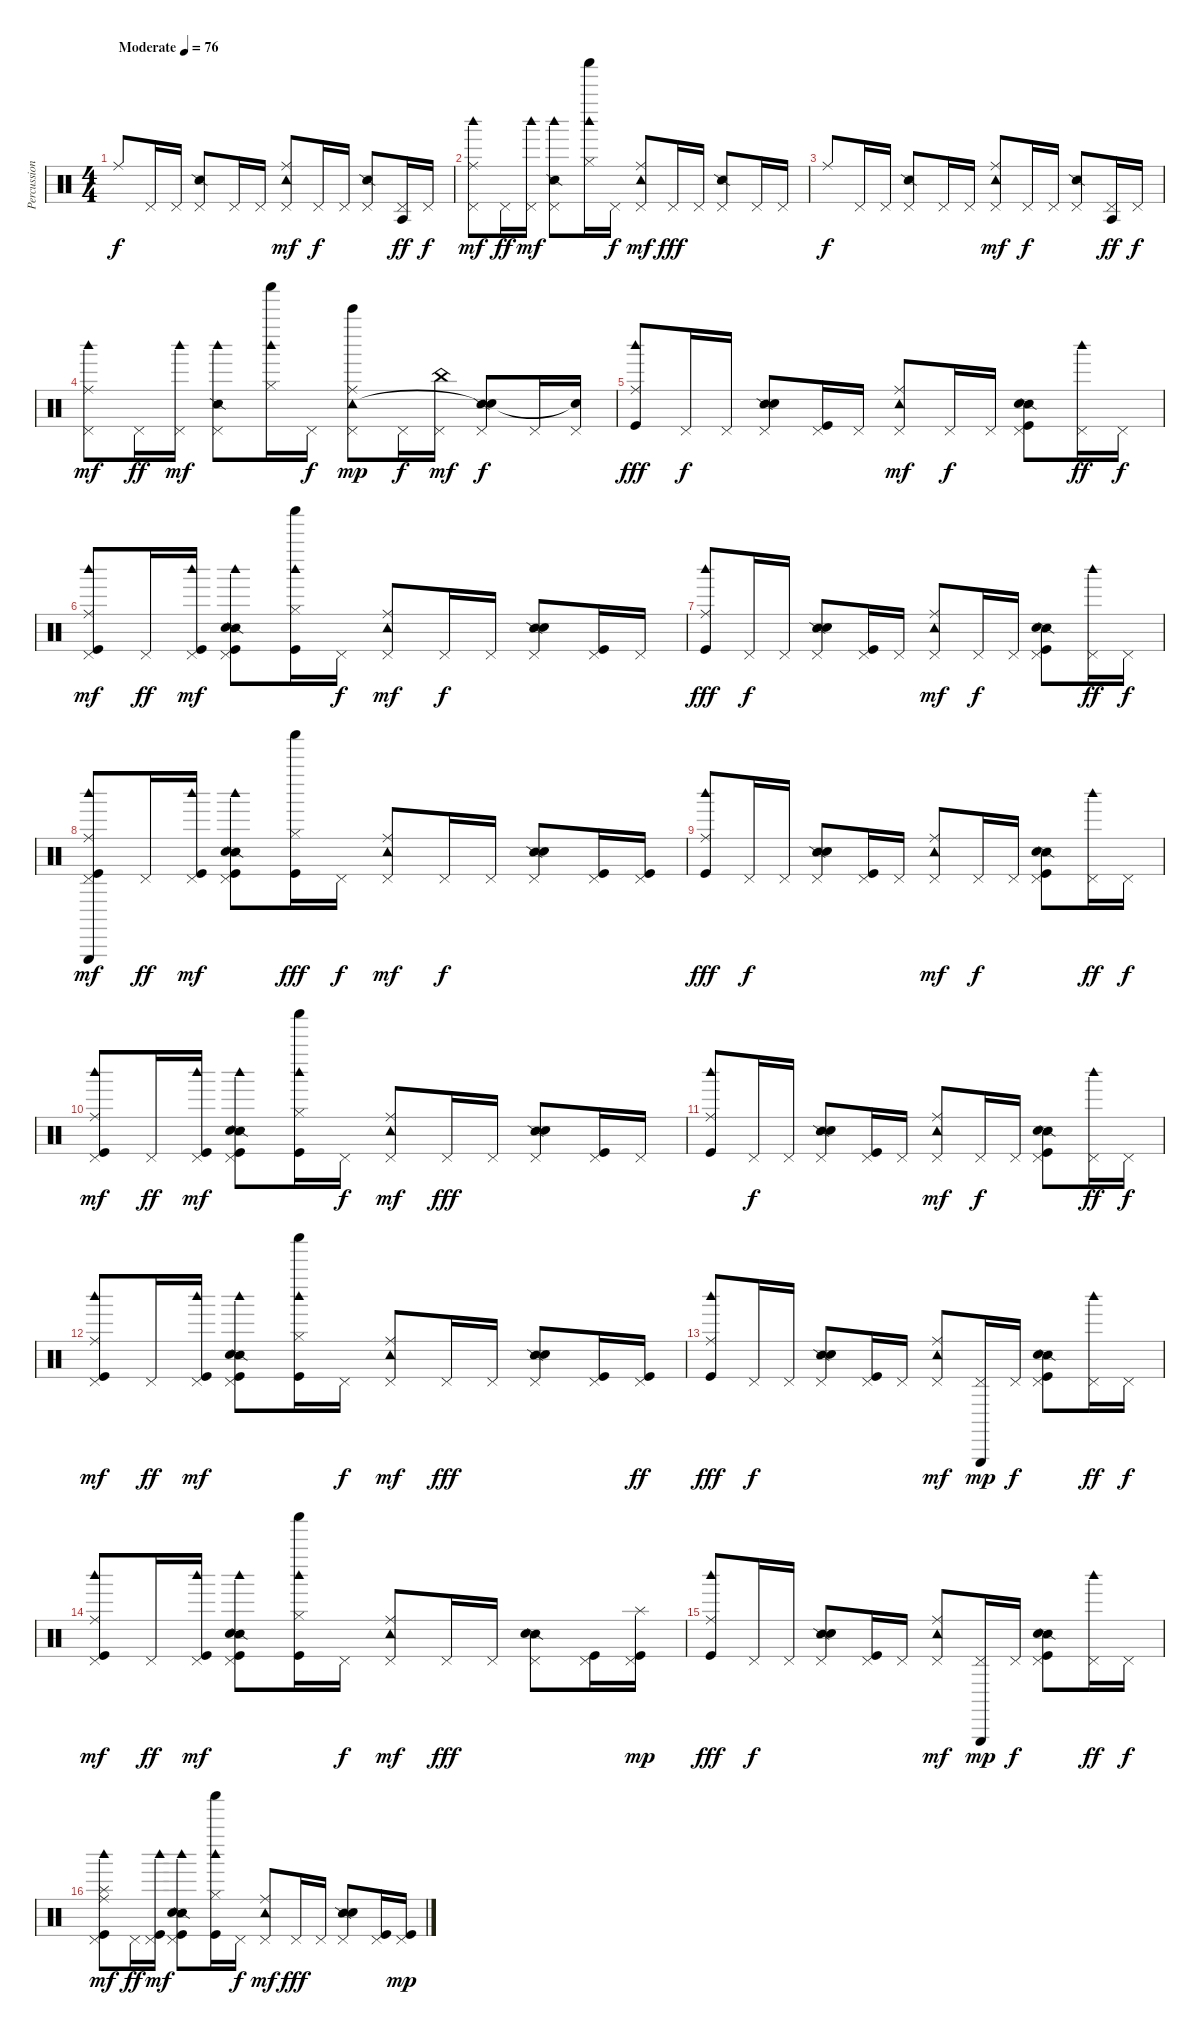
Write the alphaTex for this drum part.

\track ("Percussion" "Percussion") {instrument percussion}
\staff {score}
\articulation defaults
\ts (4 4)
\tempo (76 "Moderate")
\clef neutral
\ks c "Ride (middle)".8{dy f} "Pedal Hi-Hat (hit)".16 "Pedal Hi-Hat (hit)".16
("Pedal Hi-Hat (hit)" "Snare (side stick) 2").8 "Pedal Hi-Hat (hit)".16 "Pedal Hi-Hat (hit)".16 ("Pedal Hi-Hat (hit)" "Tambourine (hit)" "Ride (middle)").8{dy mf} "Pedal Hi-Hat (hit)".16{dy f} "Pedal Hi-Hat (hit)".16 ("Pedal Hi-Hat (hit)" "Snare (side stick) 2").8 ("Pedal Hi-Hat (hit)" "Agogo tow (hit)").16{dy ff} "Pedal Hi-Hat (hit)".16{dy f} |
("Pedal Hi-Hat (hit)" "Ride (middle)" "Woodblock high (hit)").8{dy mf} "Pedal Hi-Hat (hit)".16{dy ff} ("Pedal Hi-Hat (hit)" "Woodblock high (hit)").16{dy mf} ("Pedal Hi-Hat (hit)" "Snare (side stick) 2" "Woodblock high (hit)").8 ("Hi-Hat (closed)" "Shaker (hit)" "Woodblock high (hit)").16 "Pedal Hi-Hat (hit)".16{dy f} ("Pedal Hi-Hat (hit)" "Ride (middle)" "Tambourine (hit)").8{dy mf} "Pedal Hi-Hat (hit)".16{dy fff} "Pedal Hi-Hat (hit)".16 ("Pedal Hi-Hat (hit)" "Snare (side stick) 2").8 "Pedal Hi-Hat (hit)".16 "Pedal Hi-Hat (hit)".16 |
"Ride (middle)".8{dy f} "Pedal Hi-Hat (hit)".16 "Pedal Hi-Hat (hit)".16 ("Pedal Hi-Hat (hit)" "Snare (side stick) 2").8 "Pedal Hi-Hat (hit)".16 "Pedal Hi-Hat (hit)".16 ("Pedal Hi-Hat (hit)" "Tambourine (hit)" "Ride (middle)").8{dy mf} "Pedal Hi-Hat (hit)".16{dy f} "Pedal Hi-Hat (hit)".16 ("Pedal Hi-Hat (hit)" "Snare (side stick) 2").8 ("Pedal Hi-Hat (hit)" "Agogo tow (hit)").16{dy ff} "Pedal Hi-Hat (hit)".16{dy f} |
("Pedal Hi-Hat (hit)" "Ride (middle)" "Woodblock high (hit)").8{dy mf} "Pedal Hi-Hat (hit)".16{dy ff} ("Pedal Hi-Hat (hit)" "Woodblock high (hit)").16{dy mf} ("Pedal Hi-Hat (hit)" "Snare (side stick) 2" "Woodblock high (hit)").8 ("Hi-Hat (closed)" "Shaker (hit)" "Woodblock high (hit)").16 "Pedal Hi-Hat (hit)".16{dy f} ("Pedal Hi-Hat (hit)" "Ride (middle)" "Tambourine (hit)" "Bell Tree (hit)").8{dy mp} "Pedal Hi-Hat (hit)".16{dy f} ("Pedal Hi-Hat (hit)" "China (hit)").16{dy mf} ("Pedal Hi-Hat (hit)" "Snare (side stick) 2" "Snare (hit)"{t}).8{dy f} "Pedal Hi-Hat (hit)".16 ("Pedal Hi-Hat (hit)" "Snare (hit)"{t}).16 |
("Ride (middle)" "Woodblock high (hit)" "Kick (hit)").8{dy fff} "Pedal Hi-Hat (hit)".16{dy f} "Pedal Hi-Hat (hit)".16 ("Pedal Hi-Hat (hit)" "Snare (side stick) 2" "Hand Clap (hit)").8 ("Pedal Hi-Hat (hit)" "Kick (hit)").16 "Pedal Hi-Hat (hit)".16 ("Pedal Hi-Hat (hit)" "Tambourine (hit)" "Ride (middle)").8{dy mf} "Pedal Hi-Hat (hit)".16{dy f} "Pedal Hi-Hat (hit)".16 ("Pedal Hi-Hat (hit)" "Snare (side stick) 2" "Kick (hit)" "Hand Clap (hit)").8 ("Pedal Hi-Hat (hit)" "Woodblock high (hit)").16{dy ff} "Pedal Hi-Hat (hit)".16{dy f} |
("Pedal Hi-Hat (hit)" "Ride (middle)" "Kick (hit)" "Woodblock high (hit)").8{dy mf} "Pedal Hi-Hat (hit)".16{dy ff} ("Pedal Hi-Hat (hit)" "Kick (hit)" "Woodblock high (hit)").16{dy mf} ("Pedal Hi-Hat (hit)" "Snare (side stick) 2" "Kick (hit)" "Woodblock high (hit)" "Hand Clap (hit)").8 ("Hi-Hat (closed)" "Shaker (hit)" "Kick (hit)" "Woodblock high (hit)").16 "Pedal Hi-Hat (hit)".16{dy f} ("Pedal Hi-Hat (hit)" "Ride (middle)" "Tambourine (hit)").8{dy mf} "Pedal Hi-Hat (hit)".16{dy f} "Pedal Hi-Hat (hit)".16 ("Pedal Hi-Hat (hit)" "Snare (side stick) 2" "Hand Clap (hit)").8 ("Pedal Hi-Hat (hit)" "Kick (hit)").16 "Pedal Hi-Hat (hit)".16 |
("Ride (middle)" "Woodblock high (hit)" "Kick (hit)").8{dy fff} "Pedal Hi-Hat (hit)".16{dy f} "Pedal Hi-Hat (hit)".16 ("Pedal Hi-Hat (hit)" "Snare (side stick) 2" "Hand Clap (hit)").8 ("Pedal Hi-Hat (hit)" "Kick (hit)").16 "Pedal Hi-Hat (hit)".16 ("Pedal Hi-Hat (hit)" "Tambourine (hit)" "Ride (middle)").8{dy mf} "Pedal Hi-Hat (hit)".16{dy f} "Pedal Hi-Hat (hit)".16 ("Pedal Hi-Hat (hit)" "Snare (side stick) 2" "Kick (hit)" "Hand Clap (hit)").8 ("Pedal Hi-Hat (hit)" "Woodblock high (hit)").16{dy ff} "Pedal Hi-Hat (hit)".16{dy f} |
("Pedal Hi-Hat (hit)" "Ride (middle)" "Kick (hit)" "Woodblock high (hit)" "Triangle (hit)").8{dy mf} "Pedal Hi-Hat (hit)".16{dy ff} ("Pedal Hi-Hat (hit)" "Kick (hit)" "Woodblock high (hit)").16{dy mf} ("Pedal Hi-Hat (hit)" "Snare (side stick) 2" "Kick (hit)" "Woodblock high (hit)" "Hand Clap (hit)").8 ("Hi-Hat (closed)" "Shaker (hit)" "Kick (hit)").16{dy fff} "Pedal Hi-Hat (hit)".16{dy f} ("Pedal Hi-Hat (hit)" "Ride (middle)" "Tambourine (hit)").8{dy mf} "Pedal Hi-Hat (hit)".16{dy f} "Pedal Hi-Hat (hit)".16 ("Pedal Hi-Hat (hit)" "Snare (side stick) 2" "Hand Clap (hit)").8 ("Pedal Hi-Hat (hit)" "Kick (hit)").16 ("Pedal Hi-Hat (hit)" "Kick (hit)").16 |
("Ride (middle)" "Woodblock high (hit)" "Kick (hit)").8{dy fff} "Pedal Hi-Hat (hit)".16{dy f} "Pedal Hi-Hat (hit)".16 ("Pedal Hi-Hat (hit)" "Snare (side stick) 2" "Hand Clap (hit)").8 ("Pedal Hi-Hat (hit)" "Kick (hit)").16 "Pedal Hi-Hat (hit)".16 ("Pedal Hi-Hat (hit)" "Tambourine (hit)" "Ride (middle)").8{dy mf} "Pedal Hi-Hat (hit)".16{dy f} "Pedal Hi-Hat (hit)".16 ("Pedal Hi-Hat (hit)" "Snare (side stick) 2" "Kick (hit)" "Hand Clap (hit)").8 ("Pedal Hi-Hat (hit)" "Woodblock high (hit)").16{dy ff} "Pedal Hi-Hat (hit)".16{dy f} |
("Pedal Hi-Hat (hit)" "Ride (middle)" "Kick (hit)" "Woodblock high (hit)").8{dy mf} "Pedal Hi-Hat (hit)".16{dy ff} ("Pedal Hi-Hat (hit)" "Kick (hit)" "Woodblock high (hit)").16{dy mf} ("Pedal Hi-Hat (hit)" "Snare (side stick) 2" "Kick (hit)" "Woodblock high (hit)" "Hand Clap (hit)").8 ("Hi-Hat (closed)" "Shaker (hit)" "Kick (hit)" "Woodblock high (hit)").16 "Pedal Hi-Hat (hit)".16{dy f} ("Pedal Hi-Hat (hit)" "Ride (middle)" "Tambourine (hit)").8{dy mf} "Pedal Hi-Hat (hit)".16{dy fff} "Pedal Hi-Hat (hit)".16 ("Pedal Hi-Hat (hit)" "Snare (side stick) 2" "Hand Clap (hit)").8 ("Pedal Hi-Hat (hit)" "Kick (hit)").16 "Pedal Hi-Hat (hit)".16 |
("Ride (middle)" "Woodblock high (hit)" "Kick (hit)").8 "Pedal Hi-Hat (hit)".16{dy f} "Pedal Hi-Hat (hit)".16 ("Pedal Hi-Hat (hit)" "Snare (side stick) 2" "Hand Clap (hit)").8 ("Pedal Hi-Hat (hit)" "Kick (hit)").16 "Pedal Hi-Hat (hit)".16 ("Pedal Hi-Hat (hit)" "Tambourine (hit)" "Ride (middle)").8{dy mf} "Pedal Hi-Hat (hit)".16{dy f} "Pedal Hi-Hat (hit)".16 ("Pedal Hi-Hat (hit)" "Snare (side stick) 2" "Kick (hit)" "Hand Clap (hit)").8 ("Pedal Hi-Hat (hit)" "Woodblock high (hit)").16{dy ff} "Pedal Hi-Hat (hit)".16{dy f} |
("Pedal Hi-Hat (hit)" "Ride (middle)" "Kick (hit)" "Woodblock high (hit)").8{dy mf volume 12} "Pedal Hi-Hat (hit)".16{dy ff} ("Pedal Hi-Hat (hit)" "Kick (hit)" "Woodblock high (hit)").16{dy mf} ("Pedal Hi-Hat (hit)" "Snare (side stick) 2" "Kick (hit)" "Woodblock high (hit)" "Hand Clap (hit)").8 ("Hi-Hat (closed)" "Shaker (hit)" "Kick (hit)" "Woodblock high (hit)").16 "Pedal Hi-Hat (hit)".16{dy f} ("Pedal Hi-Hat (hit)" "Ride (middle)" "Tambourine (hit)").8{dy mf} "Pedal Hi-Hat (hit)".16{dy fff} "Pedal Hi-Hat (hit)".16 ("Pedal Hi-Hat (hit)" "Snare (side stick) 2" "Hand Clap (hit)").8 ("Pedal Hi-Hat (hit)" "Kick (hit)").16 ("Pedal Hi-Hat (hit)" "Kick (hit)").16{dy ff} |
("Ride (middle)" "Woodblock high (hit)" "Kick (hit)").8{dy fff} "Pedal Hi-Hat (hit)".16{dy f} "Pedal Hi-Hat (hit)".16 ("Pedal Hi-Hat (hit)" "Snare (side stick) 2" "Hand Clap (hit)").8 ("Pedal Hi-Hat (hit)" "Kick (hit)").16 "Pedal Hi-Hat (hit)".16 ("Pedal Hi-Hat (hit)" "Tambourine (hit)" "Ride (middle)").8{dy mf} ("Pedal Hi-Hat (hit)" "Triangle (hit)").16{dy mp} "Pedal Hi-Hat (hit)".16{dy f} ("Pedal Hi-Hat (hit)" "Snare (side stick) 2" "Kick (hit)" "Hand Clap (hit)").8 ("Pedal Hi-Hat (hit)" "Woodblock high (hit)").16{dy ff} "Pedal Hi-Hat (hit)".16{dy f} |
("Pedal Hi-Hat (hit)" "Ride (middle)" "Kick (hit)" "Woodblock high (hit)").8{dy mf} "Pedal Hi-Hat (hit)".16{dy ff} ("Pedal Hi-Hat (hit)" "Kick (hit)" "Woodblock high (hit)").16{dy mf} ("Pedal Hi-Hat (hit)" "Snare (side stick) 2" "Kick (hit)" "Woodblock high (hit)" "Hand Clap (hit)").8 ("Hi-Hat (closed)" "Shaker (hit)" "Kick (hit)" "Woodblock high (hit)").16 "Pedal Hi-Hat (hit)".16{dy f} ("Pedal Hi-Hat (hit)" "Ride (middle)" "Tambourine (hit)").8{dy mf} "Pedal Hi-Hat (hit)".16{dy fff} "Pedal Hi-Hat (hit)".16 ("Pedal Hi-Hat (hit)" "Snare (side stick) 2" "Hand Clap (hit)").8 ("Pedal Hi-Hat (hit)" "Kick (hit)").16 ("Pedal Hi-Hat (hit)" "Kick (hit)" "Splash (hit)").16{dy mp} |
("Ride (middle)" "Woodblock high (hit)" "Kick (hit)").8{dy fff} "Pedal Hi-Hat (hit)".16{dy f} "Pedal Hi-Hat (hit)".16 ("Pedal Hi-Hat (hit)" "Snare (side stick) 2" "Hand Clap (hit)").8 ("Pedal Hi-Hat (hit)" "Kick (hit)").16 "Pedal Hi-Hat (hit)".16 ("Pedal Hi-Hat (hit)" "Tambourine (hit)" "Ride (middle)").8{dy mf} ("Pedal Hi-Hat (hit)" "Triangle (hit)").16{dy mp} "Pedal Hi-Hat (hit)".16{dy f} ("Pedal Hi-Hat (hit)" "Snare (side stick) 2" "Kick (hit)" "Hand Clap (hit)").8 ("Pedal Hi-Hat (hit)" "Woodblock high (hit)").16{dy ff} "Pedal Hi-Hat (hit)".16{dy f} |
("Splash (hit)" "Pedal Hi-Hat (hit)" "Ride (middle)" "Kick (hit)" "Woodblock high (hit)").8{dy mf} "Pedal Hi-Hat (hit)".16{dy ff} ("Pedal Hi-Hat (hit)" "Kick (hit)" "Woodblock high (hit)").16{dy mf} ("Pedal Hi-Hat (hit)" "Snare (side stick) 2" "Kick (hit)" "Woodblock high (hit)" "Hand Clap (hit)").8 ("Hi-Hat (closed)" "Shaker (hit)" "Kick (hit)" "Woodblock high (hit)").16 "Pedal Hi-Hat (hit)".16{dy f} ("Pedal Hi-Hat (hit)" "Ride (middle)" "Tambourine (hit)").8{dy mf} "Pedal Hi-Hat (hit)".16{dy fff} "Pedal Hi-Hat (hit)".16 ("Pedal Hi-Hat (hit)" "Snare (side stick) 2" "Hand Clap (hit)").8 ("Pedal Hi-Hat (hit)" "Kick (hit)").16 ("Pedal Hi-Hat (hit)" "Kick (hit)").16{dy mp}
